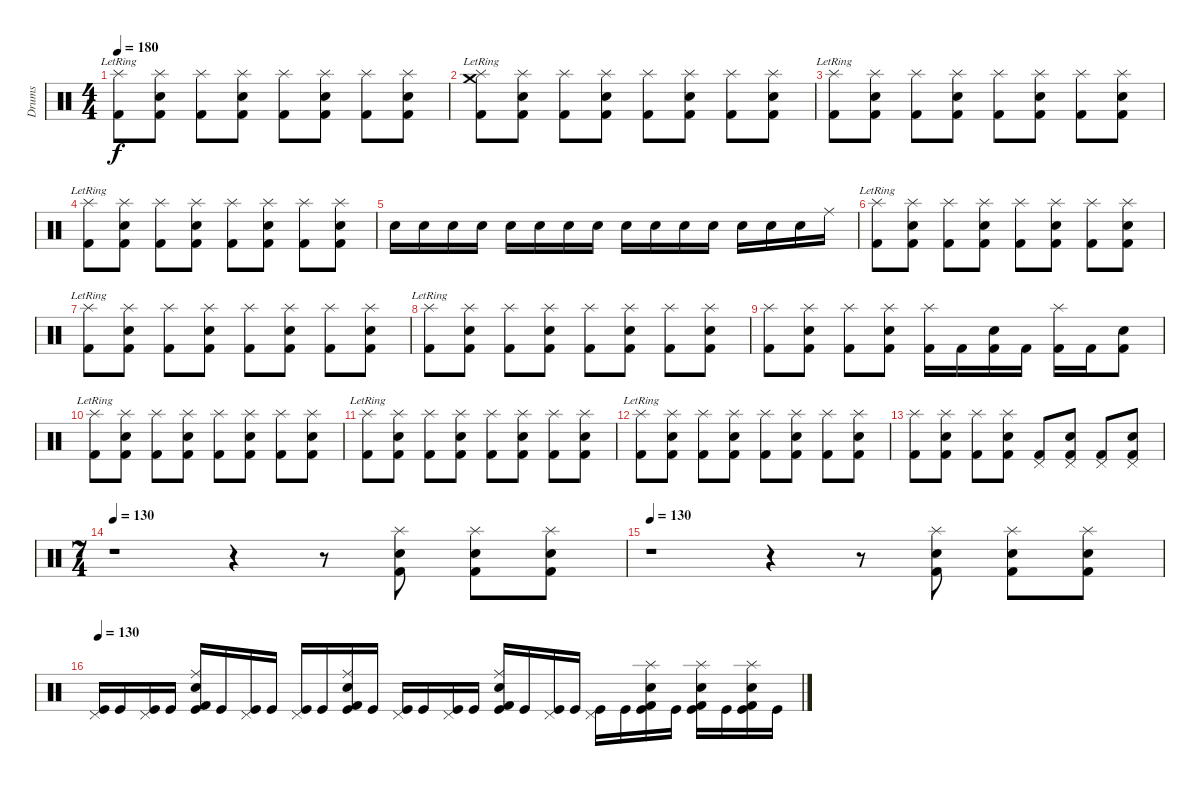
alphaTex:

\track ("Drums" "Drums") {instrument percussion}
\staff {score}
\articulation defaults
\ts (4 4)
\tempo 180
\clef neutral
\ks c
("Splash (hit)"{lr} "Kick (hit) 2").8{dy f} ("Splash (hit)" "Electric Snare (hit)" "Kick (hit) 2").8 ("Splash (hit)" "Kick (hit) 2").8 ("Splash (hit)" "Electric Snare (hit)" "Kick (hit) 2").8 ("Splash (hit)" "Kick (hit) 2").8 ("Splash (hit)" "Electric Snare (hit)" "Kick (hit) 2").8 ("Splash (hit)" "Kick (hit) 2").8 ("Splash (hit)" "Electric Snare (hit)" "Kick (hit) 2").8 |
("Crash medium (hit)" "Splash (hit)"{lr} "Kick (hit) 2").8 ("Splash (hit)" "Electric Snare (hit)" "Kick (hit) 2").8 ("Splash (hit)" "Kick (hit) 2").8 ("Splash (hit)" "Electric Snare (hit)" "Kick (hit) 2").8 ("Splash (hit)" "Kick (hit) 2").8 ("Splash (hit)" "Electric Snare (hit)" "Kick (hit) 2").8 ("Splash (hit)" "Kick (hit) 2").8 ("Splash (hit)" "Electric Snare (hit)" "Kick (hit) 2").8 |
("Splash (hit)"{lr} "Kick (hit) 2").8 ("Splash (hit)" "Electric Snare (hit)" "Kick (hit) 2").8 ("Splash (hit)" "Kick (hit) 2").8 ("Splash (hit)" "Electric Snare (hit)" "Kick (hit) 2").8 ("Splash (hit)" "Kick (hit) 2").8 ("Splash (hit)" "Electric Snare (hit)" "Kick (hit) 2").8 ("Splash (hit)" "Kick (hit) 2").8 ("Splash (hit)" "Electric Snare (hit)" "Kick (hit) 2").8 |
("Splash (hit)"{lr} "Kick (hit) 2").8 ("Splash (hit)" "Electric Snare (hit)" "Kick (hit) 2").8 ("Splash (hit)" "Kick (hit) 2").8 ("Splash (hit)" "Electric Snare (hit)" "Kick (hit) 2").8 ("Splash (hit)" "Kick (hit) 2").8 ("Splash (hit)" "Electric Snare (hit)" "Kick (hit) 2").8 ("Splash (hit)" "Kick (hit) 2").8 ("Splash (hit)" "Electric Snare (hit)" "Kick (hit) 2").8 |
"Electric Snare (hit)".16 "Electric Snare (hit)".16 "Electric Snare (hit)".16 "Electric Snare (hit)".16 "Electric Snare (hit)".16 "Electric Snare (hit)".16 "Electric Snare (hit)".16 "Electric Snare (hit)".16 "Electric Snare (hit)".16 "Electric Snare (hit)".16 "Electric Snare (hit)".16 "Electric Snare (hit)".16 "Electric Snare (hit)".16 "Electric Snare (hit)".16 "Electric Snare (hit)".16 "Ride (middle)".16 |
("Splash (hit)"{lr} "Kick (hit) 2").8 ("Splash (hit)" "Electric Snare (hit)" "Kick (hit) 2").8 ("Splash (hit)" "Kick (hit) 2").8 ("Splash (hit)" "Electric Snare (hit)" "Kick (hit) 2").8 ("Splash (hit)" "Kick (hit) 2").8 ("Splash (hit)" "Electric Snare (hit)" "Kick (hit) 2").8 ("Splash (hit)" "Kick (hit) 2").8 ("Splash (hit)" "Electric Snare (hit)" "Kick (hit) 2").8 |
("Splash (hit)"{lr} "Kick (hit) 2").8 ("Splash (hit)" "Electric Snare (hit)" "Kick (hit) 2").8 ("Splash (hit)" "Kick (hit) 2").8 ("Splash (hit)" "Electric Snare (hit)" "Kick (hit) 2").8 ("Splash (hit)" "Kick (hit) 2").8 ("Splash (hit)" "Electric Snare (hit)" "Kick (hit) 2").8 ("Splash (hit)" "Kick (hit) 2").8 ("Splash (hit)" "Electric Snare (hit)" "Kick (hit) 2").8 |
("Splash (hit)"{lr} "Kick (hit) 2").8 ("Splash (hit)" "Electric Snare (hit)" "Kick (hit) 2").8 ("Splash (hit)" "Kick (hit) 2").8 ("Splash (hit)" "Electric Snare (hit)" "Kick (hit) 2").8 ("Splash (hit)" "Kick (hit) 2").8 ("Splash (hit)" "Electric Snare (hit)" "Kick (hit) 2").8 ("Splash (hit)" "Kick (hit) 2").8 ("Splash (hit)" "Electric Snare (hit)" "Kick (hit) 2").8 |
("Splash (hit)" "Kick (hit) 2").8 ("Splash (hit)" "Electric Snare (hit)" "Kick (hit) 2").8 ("Splash (hit)" "Kick (hit) 2").8 ("Splash (hit)" "Electric Snare (hit)" "Kick (hit) 2").8 ("Splash (hit)" "Kick (hit) 2").16 "Kick (hit) 2".16 ("Electric Snare (hit)" "Kick (hit) 2").16 "Kick (hit) 2".16 ("Splash (hit)" "Kick (hit) 2").16 "Kick (hit) 2".16 ("Electric Snare (hit)" "Kick (hit) 2").8 |
("Splash (hit)"{lr} "Kick (hit) 2").8 ("Splash (hit)" "Electric Snare (hit)" "Kick (hit) 2").8 ("Splash (hit)" "Kick (hit) 2").8 ("Splash (hit)" "Electric Snare (hit)" "Kick (hit) 2").8 ("Splash (hit)" "Kick (hit) 2").8 ("Splash (hit)" "Electric Snare (hit)" "Kick (hit) 2").8 ("Splash (hit)" "Kick (hit) 2").8 ("Splash (hit)" "Electric Snare (hit)" "Kick (hit) 2").8 |
("Splash (hit)"{lr} "Kick (hit) 2").8 ("Splash (hit)" "Electric Snare (hit)" "Kick (hit) 2").8 ("Splash (hit)" "Kick (hit) 2").8 ("Splash (hit)" "Electric Snare (hit)" "Kick (hit) 2").8 ("Splash (hit)" "Kick (hit) 2").8 ("Splash (hit)" "Electric Snare (hit)" "Kick (hit) 2").8 ("Splash (hit)" "Kick (hit) 2").8 ("Splash (hit)" "Electric Snare (hit)" "Kick (hit) 2").8 |
("Splash (hit)"{lr} "Kick (hit) 2").8 ("Splash (hit)" "Electric Snare (hit)" "Kick (hit) 2").8 ("Splash (hit)" "Kick (hit) 2").8 ("Splash (hit)" "Electric Snare (hit)" "Kick (hit) 2").8 ("Splash (hit)" "Kick (hit) 2").8 ("Splash (hit)" "Electric Snare (hit)" "Kick (hit) 2").8 ("Splash (hit)" "Kick (hit) 2").8 ("Splash (hit)" "Electric Snare (hit)" "Kick (hit) 2").8 |
("Splash (hit)" "Kick (hit) 2").8 ("Splash (hit)" "Electric Snare (hit)" "Kick (hit) 2").8 ("Splash (hit)" "Kick (hit) 2").8 ("Splash (hit)" "Electric Snare (hit)" "Kick (hit) 2").8 ("Pedal Hi-Hat (hit)" "Kick (hit) 2").8 ("Pedal Hi-Hat (hit)" "Electric Snare (hit)" "Kick (hit) 2").8 ("Pedal Hi-Hat (hit)" "Kick (hit) 2").8 ("Pedal Hi-Hat (hit)" "Electric Snare (hit)" "Kick (hit) 2").8 |
\ts (7 4)
\tempo 130
r.1 r.4 r.8 ("Splash (hit)" "Electric Snare (hit)" "Kick (hit) 2").8 ("Splash (hit)" "Electric Snare (hit)" "Kick (hit) 2").8 ("Splash (hit)" "Electric Snare (hit)" "Kick (hit) 2").8 |
\tempo 130
r.1 r.4 r.8 ("Splash (hit)" "Electric Snare (hit)" "Kick (hit) 2").8 ("Splash (hit)" "Electric Snare (hit)" "Kick (hit) 2").8 ("Splash (hit)" "Electric Snare (hit)" "Kick (hit) 2").8 |
\tempo 130
("Pedal Hi-Hat (hit)" "Kick (hit)").16 "Kick (hit)".16 ("Pedal Hi-Hat (hit)" "Kick (hit)").16 "Kick (hit)".16 ("Ride (middle)" "Electric Snare (hit)" "Kick (hit) 2" "Kick (hit)").16 "Kick (hit)".16 ("Pedal Hi-Hat (hit)" "Kick (hit)").16 "Kick (hit)".16 ("Pedal Hi-Hat (hit)" "Kick (hit)").16 "Kick (hit)".16 ("Ride (middle)" "Electric Snare (hit)" "Kick (hit) 2" "Kick (hit)").16 "Kick (hit)".16 ("Pedal Hi-Hat (hit)" "Kick (hit)").16 "Kick (hit)".16 ("Pedal Hi-Hat (hit)" "Kick (hit)").16 "Kick (hit)".16 ("Ride (middle)" "Electric Snare (hit)" "Kick (hit) 2" "Kick (hit)").16 "Kick (hit)".16 ("Pedal Hi-Hat (hit)" "Kick (hit)").16 "Kick (hit)".16 ("Pedal Hi-Hat (hit)" "Kick (hit)").16 "Kick (hit)".16 ("Splash (hit)" "Electric Snare (hit)" "Kick (hit) 2" "Kick (hit)").16 "Kick (hit)".16 ("Splash (hit)" "Electric Snare (hit)" "Kick (hit) 2" "Kick (hit)").16 "Kick (hit)".16 ("Splash (hit)" "Electric Snare (hit)" "Kick (hit) 2" "Kick (hit)").16 "Kick (hit)".16
